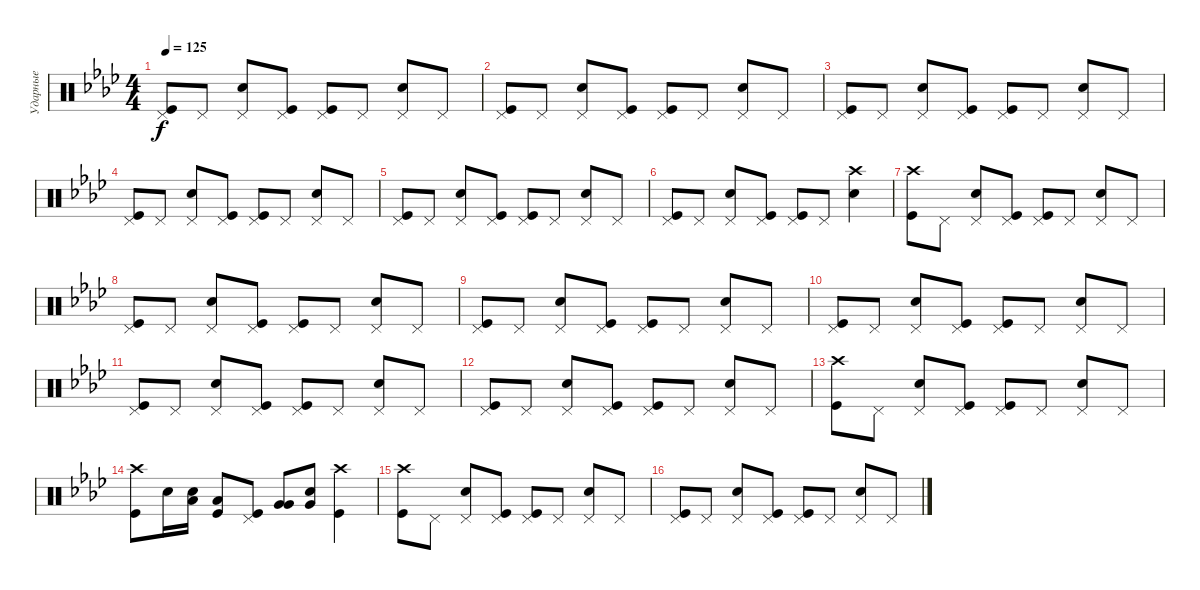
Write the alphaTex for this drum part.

\track ("Ударные" "Ударные") {solo instrument percussion}
\staff {score}
\articulation defaults
\ts (4 4)
\tempo 125
\clef neutral
\ks fminor
("Pedal Hi-Hat (hit)" "Kick (hit)").8{dy f} "Pedal Hi-Hat (hit)".8 ("Pedal Hi-Hat (hit)" "Electric Snare (hit)").8 ("Pedal Hi-Hat (hit)" "Kick (hit)").8 ("Pedal Hi-Hat (hit)" "Kick (hit)").8 "Pedal Hi-Hat (hit)".8 ("Pedal Hi-Hat (hit)" "Electric Snare (hit)").8 "Pedal Hi-Hat (hit)".8 |
("Pedal Hi-Hat (hit)" "Kick (hit)").8 "Pedal Hi-Hat (hit)".8 ("Pedal Hi-Hat (hit)" "Electric Snare (hit)").8 ("Pedal Hi-Hat (hit)" "Kick (hit)").8 ("Pedal Hi-Hat (hit)" "Kick (hit)").8 "Pedal Hi-Hat (hit)".8 ("Pedal Hi-Hat (hit)" "Electric Snare (hit)").8 "Pedal Hi-Hat (hit)".8 |
("Pedal Hi-Hat (hit)" "Kick (hit)").8 "Pedal Hi-Hat (hit)".8 ("Pedal Hi-Hat (hit)" "Electric Snare (hit)").8 ("Pedal Hi-Hat (hit)" "Kick (hit)").8 ("Pedal Hi-Hat (hit)" "Kick (hit)").8 "Pedal Hi-Hat (hit)".8 ("Pedal Hi-Hat (hit)" "Electric Snare (hit)").8 "Pedal Hi-Hat (hit)".8 |
("Pedal Hi-Hat (hit)" "Kick (hit)").8 "Pedal Hi-Hat (hit)".8 ("Pedal Hi-Hat (hit)" "Electric Snare (hit)").8 ("Pedal Hi-Hat (hit)" "Kick (hit)").8 ("Pedal Hi-Hat (hit)" "Kick (hit)").8 "Pedal Hi-Hat (hit)".8 ("Pedal Hi-Hat (hit)" "Electric Snare (hit)").8 "Pedal Hi-Hat (hit)".8 |
("Pedal Hi-Hat (hit)" "Kick (hit)").8 "Pedal Hi-Hat (hit)".8 ("Pedal Hi-Hat (hit)" "Electric Snare (hit)").8 ("Pedal Hi-Hat (hit)" "Kick (hit)").8 ("Pedal Hi-Hat (hit)" "Kick (hit)").8 "Pedal Hi-Hat (hit)".8 ("Pedal Hi-Hat (hit)" "Electric Snare (hit)").8 "Pedal Hi-Hat (hit)".8 |
("Pedal Hi-Hat (hit)" "Kick (hit)").8 "Pedal Hi-Hat (hit)".8 ("Pedal Hi-Hat (hit)" "Electric Snare (hit)").8 ("Pedal Hi-Hat (hit)" "Kick (hit)").8 ("Pedal Hi-Hat (hit)" "Kick (hit)").8 "Pedal Hi-Hat (hit)".8 ("Crash high (hit)" "Electric Snare (hit)").4 |
("Crash high (hit)" "Kick (hit)").8 "Pedal Hi-Hat (hit)".8 ("Pedal Hi-Hat (hit)" "Electric Snare (hit)").8 ("Pedal Hi-Hat (hit)" "Kick (hit)").8 ("Pedal Hi-Hat (hit)" "Kick (hit)").8 "Pedal Hi-Hat (hit)".8 ("Pedal Hi-Hat (hit)" "Electric Snare (hit)").8 "Pedal Hi-Hat (hit)".8 |
("Pedal Hi-Hat (hit)" "Kick (hit)").8 "Pedal Hi-Hat (hit)".8 ("Pedal Hi-Hat (hit)" "Electric Snare (hit)").8 ("Pedal Hi-Hat (hit)" "Kick (hit)").8 ("Pedal Hi-Hat (hit)" "Kick (hit)").8 "Pedal Hi-Hat (hit)".8 ("Pedal Hi-Hat (hit)" "Electric Snare (hit)").8 "Pedal Hi-Hat (hit)".8 |
("Pedal Hi-Hat (hit)" "Kick (hit)").8 "Pedal Hi-Hat (hit)".8 ("Pedal Hi-Hat (hit)" "Electric Snare (hit)").8 ("Pedal Hi-Hat (hit)" "Kick (hit)").8 ("Pedal Hi-Hat (hit)" "Kick (hit)").8 "Pedal Hi-Hat (hit)".8 ("Pedal Hi-Hat (hit)" "Electric Snare (hit)").8 "Pedal Hi-Hat (hit)".8 |
("Pedal Hi-Hat (hit)" "Kick (hit)").8 "Pedal Hi-Hat (hit)".8 ("Pedal Hi-Hat (hit)" "Electric Snare (hit)").8 ("Pedal Hi-Hat (hit)" "Kick (hit)").8 ("Pedal Hi-Hat (hit)" "Kick (hit)").8 "Pedal Hi-Hat (hit)".8 ("Pedal Hi-Hat (hit)" "Electric Snare (hit)").8 "Pedal Hi-Hat (hit)".8 |
("Pedal Hi-Hat (hit)" "Kick (hit)").8 "Pedal Hi-Hat (hit)".8 ("Pedal Hi-Hat (hit)" "Electric Snare (hit)").8 ("Pedal Hi-Hat (hit)" "Kick (hit)").8 ("Pedal Hi-Hat (hit)" "Kick (hit)").8 "Pedal Hi-Hat (hit)".8 ("Pedal Hi-Hat (hit)" "Electric Snare (hit)").8 "Pedal Hi-Hat (hit)".8 |
("Pedal Hi-Hat (hit)" "Kick (hit)").8 "Pedal Hi-Hat (hit)".8 ("Pedal Hi-Hat (hit)" "Electric Snare (hit)").8 ("Pedal Hi-Hat (hit)" "Kick (hit)").8 ("Pedal Hi-Hat (hit)" "Kick (hit)").8 "Pedal Hi-Hat (hit)".8 ("Pedal Hi-Hat (hit)" "Electric Snare (hit)").8 "Pedal Hi-Hat (hit)".8 |
("Crash high (hit)" "Kick (hit)").8 "Pedal Hi-Hat (hit)".8 ("Pedal Hi-Hat (hit)" "Electric Snare (hit)").8 ("Pedal Hi-Hat (hit)" "Kick (hit)").8 ("Pedal Hi-Hat (hit)" "Kick (hit)").8 "Pedal Hi-Hat (hit)".8 ("Pedal Hi-Hat (hit)" "Electric Snare (hit)").8 "Pedal Hi-Hat (hit)".8 |
("Crash high (hit)" "Kick (hit)").8 "Snare (hit) 2".16 ("Low Floor Tom (hit)" "Electric Snare (hit)").16 ("Low Floor Tom (hit)" "Kick (hit)").8 ("Pedal Hi-Hat (hit)" "Kick (hit)").8 ("Very Low Tom (hit)" "Very Low Tom (hit)").8 ("Very Low Tom (hit)" "Electric Snare (hit)").8 ("Crash high (hit)" "Kick (hit)").4 |
("Crash high (hit)" "Kick (hit)").8 "Pedal Hi-Hat (hit)".8 ("Pedal Hi-Hat (hit)" "Electric Snare (hit)").8 ("Pedal Hi-Hat (hit)" "Kick (hit)").8 ("Pedal Hi-Hat (hit)" "Kick (hit)").8 "Pedal Hi-Hat (hit)".8 ("Pedal Hi-Hat (hit)" "Electric Snare (hit)").8 "Pedal Hi-Hat (hit)".8 |
("Pedal Hi-Hat (hit)" "Kick (hit)").8 "Pedal Hi-Hat (hit)".8 ("Pedal Hi-Hat (hit)" "Electric Snare (hit)").8 ("Pedal Hi-Hat (hit)" "Kick (hit)").8 ("Pedal Hi-Hat (hit)" "Kick (hit)").8 "Pedal Hi-Hat (hit)".8 ("Pedal Hi-Hat (hit)" "Electric Snare (hit)").8 "Pedal Hi-Hat (hit)".8
